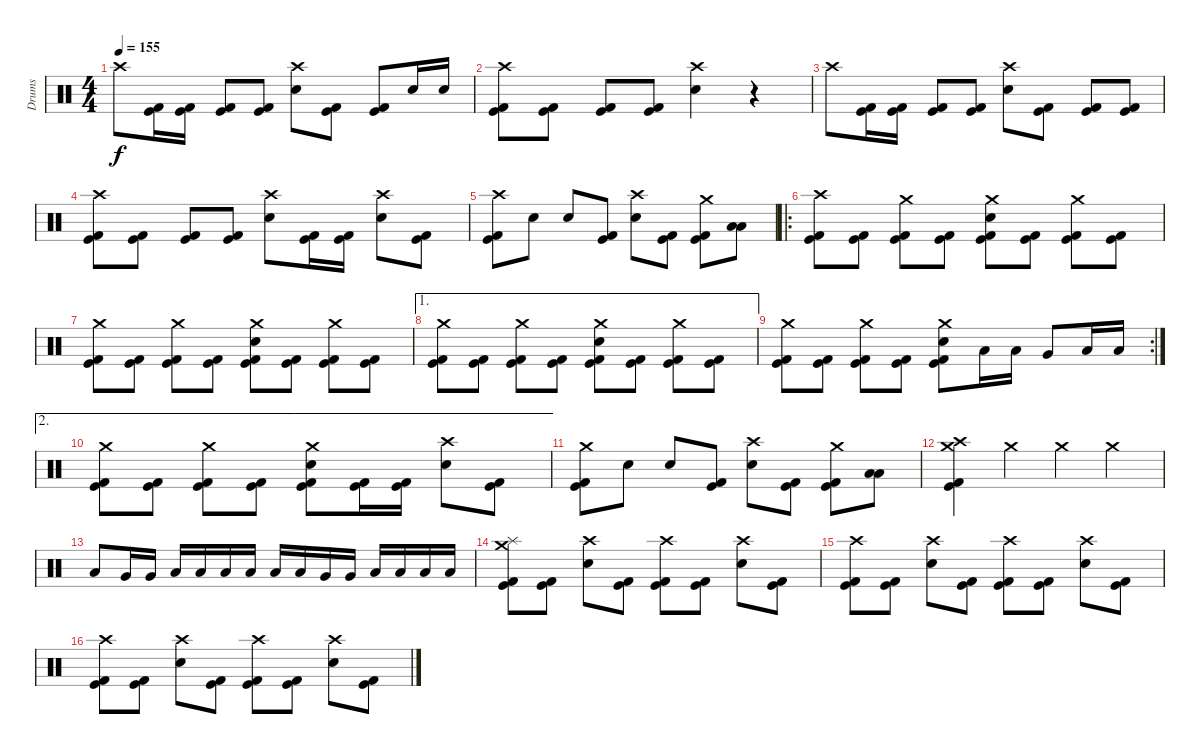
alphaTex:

\track ("Drums" "Drums") {instrument percussion}
\staff {score}
\articulation defaults
\ts (4 4)
\tempo 155
\clef neutral
\ks c "Crash high (hit)".8{dy f}
("Kick (hit)" "Kick (hit) 2").16 ("Kick (hit)" "Kick (hit) 2").16 ("Kick (hit)" "Kick (hit) 2").8 ("Kick (hit)" "Kick (hit) 2").8 ("Crash high (hit)" "Electric Snare (hit)").8 ("Kick (hit)" "Kick (hit) 2").8 ("Kick (hit)" "Kick (hit) 2").8 "Electric Snare (hit)".16 "Electric Snare (hit)".16 |
("Crash high (hit)" "Kick (hit)" "Kick (hit) 2").8 ("Kick (hit)" "Kick (hit) 2").8 ("Kick (hit)" "Kick (hit) 2").8 ("Kick (hit)" "Kick (hit) 2").8 ("Crash high (hit)" "Electric Snare (hit)").4 r.4 |
"Crash high (hit)".8 ("Kick (hit)" "Kick (hit) 2").16 ("Kick (hit)" "Kick (hit) 2").16 ("Kick (hit)" "Kick (hit) 2").8 ("Kick (hit)" "Kick (hit) 2").8 ("Crash high (hit)" "Electric Snare (hit)").8 ("Kick (hit)" "Kick (hit) 2").8 ("Kick (hit)" "Kick (hit) 2").8 ("Kick (hit)" "Kick (hit) 2").8 |
("Crash high (hit)" "Kick (hit)" "Kick (hit) 2").8 ("Kick (hit)" "Kick (hit) 2").8 ("Kick (hit)" "Kick (hit) 2").8 ("Kick (hit)" "Kick (hit) 2").8 ("Crash high (hit)" "Electric Snare (hit)").8 ("Kick (hit)" "Kick (hit) 2").16 ("Kick (hit)" "Kick (hit) 2").16 ("Crash high (hit)" "Electric Snare (hit)").8 ("Kick (hit)" "Kick (hit) 2").8 |
("Crash high (hit)" "Kick (hit)" "Kick (hit) 2").8 "Electric Snare (hit)".8 "Electric Snare (hit)".8 ("Kick (hit)" "Kick (hit) 2").8 ("Crash high (hit)" "Electric Snare (hit)").8 ("Kick (hit)" "Kick (hit) 2").8 ("Crash medium (hit)" "Kick (hit)" "Kick (hit) 2").8 ("Low Floor Tom (hit)" "Low Tom (hit)").8 |
\ro
("Crash high (hit)" "Kick (hit)" "Kick (hit) 2").8 ("Kick (hit)" "Kick (hit) 2").8 ("Crash medium (hit)" "Kick (hit)" "Kick (hit) 2").8 ("Kick (hit)" "Kick (hit) 2").8 ("Crash medium (hit)" "Electric Snare (hit)" "Kick (hit)" "Kick (hit) 2").8 ("Kick (hit)" "Kick (hit) 2").8 ("Crash medium (hit)" "Kick (hit)" "Kick (hit) 2").8 ("Kick (hit)" "Kick (hit) 2").8 |
("Crash medium (hit)" "Kick (hit)" "Kick (hit) 2").8 ("Kick (hit)" "Kick (hit) 2").8 ("Crash medium (hit)" "Kick (hit)" "Kick (hit) 2").8 ("Kick (hit)" "Kick (hit) 2").8 ("Crash medium (hit)" "Electric Snare (hit)" "Kick (hit)" "Kick (hit) 2").8 ("Kick (hit)" "Kick (hit) 2").8 ("Crash medium (hit)" "Kick (hit)" "Kick (hit) 2").8 ("Kick (hit)" "Kick (hit) 2").8 |
\ae 1
("Crash medium (hit)" "Kick (hit)" "Kick (hit) 2").8 ("Kick (hit)" "Kick (hit) 2").8 ("Crash medium (hit)" "Kick (hit)" "Kick (hit) 2").8 ("Kick (hit)" "Kick (hit) 2").8 ("Crash medium (hit)" "Electric Snare (hit)" "Kick (hit)" "Kick (hit) 2").8 ("Kick (hit)" "Kick (hit) 2").8 ("Crash medium (hit)" "Kick (hit)" "Kick (hit) 2").8 ("Kick (hit)" "Kick (hit) 2").8 |
\rc 2
("Crash medium (hit)" "Kick (hit)" "Kick (hit) 2").8 ("Kick (hit)" "Kick (hit) 2").8 ("Crash medium (hit)" "Kick (hit)" "Kick (hit) 2").8 ("Kick (hit)" "Kick (hit) 2").8 ("Crash medium (hit)" "Electric Snare (hit)" "Kick (hit)" "Kick (hit) 2").8 "Low Tom (hit)".16 "Low Tom (hit)".16 "Very Low Tom (hit)".8 "Low Floor Tom (hit)".16 "Low Floor Tom (hit)".16 |
\ae 2
("Crash medium (hit)" "Kick (hit)" "Kick (hit) 2").8 ("Kick (hit)" "Kick (hit) 2").8 ("Crash medium (hit)" "Kick (hit)" "Kick (hit) 2").8 ("Kick (hit)" "Kick (hit) 2").8 ("Crash medium (hit)" "Electric Snare (hit)" "Kick (hit)" "Kick (hit) 2").8 ("Kick (hit)" "Kick (hit) 2").16 ("Kick (hit)" "Kick (hit) 2").16 ("Crash high (hit)" "Electric Snare (hit)").8 ("Kick (hit)" "Kick (hit) 2").8 |
("Crash medium (hit)" "Kick (hit)" "Kick (hit) 2").8 "Electric Snare (hit)".8 "Electric Snare (hit)".8 ("Kick (hit)" "Kick (hit) 2").8 ("Crash high (hit)" "Electric Snare (hit)").8 ("Kick (hit)" "Kick (hit) 2").8 ("Crash medium (hit)" "Kick (hit)" "Kick (hit) 2").8 ("Low Floor Tom (hit)" "Low Tom (hit)").8 |
("Crash high (hit)" "Crash medium (hit)" "Kick (hit)" "Kick (hit) 2").4 "Crash medium (hit)".4 "Crash medium (hit)".4 "Crash medium (hit)".4 |
"Low Tom (hit)".8 "Very Low Tom (hit)".16 "Very Low Tom (hit)".16 "Low Tom (hit)".16 "Low Tom (hit)".16 "Low Floor Tom (hit)".16 "Low Floor Tom (hit)".16 "Low Tom (hit)".16 "Low Tom (hit)".16 "Very Low Tom (hit)".16 "Very Low Tom (hit)".16 "Low Tom (hit)".16 "Low Tom (hit)".16 "Low Floor Tom (hit)".16 "Low Floor Tom (hit)".16 |
("Crash medium (hit)" "Splash (hit)" "Kick (hit)" "Kick (hit) 2").8 ("Kick (hit)" "Kick (hit) 2").8 ("Crash high (hit)" "Electric Snare (hit)").8 ("Kick (hit)" "Kick (hit) 2").8 ("Crash high (hit)" "Kick (hit)" "Kick (hit) 2").8 ("Kick (hit)" "Kick (hit) 2").8 ("Crash high (hit)" "Electric Snare (hit)").8 ("Kick (hit)" "Kick (hit) 2").8 |
("Crash high (hit)" "Kick (hit)" "Kick (hit) 2").8 ("Kick (hit)" "Kick (hit) 2").8 ("Crash high (hit)" "Electric Snare (hit)").8 ("Kick (hit)" "Kick (hit) 2").8 ("Crash high (hit)" "Kick (hit)" "Kick (hit) 2").8 ("Kick (hit)" "Kick (hit) 2").8 ("Crash high (hit)" "Electric Snare (hit)").8 ("Kick (hit)" "Kick (hit) 2").8 |
("Crash high (hit)" "Kick (hit)" "Kick (hit) 2").8 ("Kick (hit)" "Kick (hit) 2").8 ("Crash high (hit)" "Electric Snare (hit)").8 ("Kick (hit)" "Kick (hit) 2").8 ("Crash high (hit)" "Kick (hit)" "Kick (hit) 2").8 ("Kick (hit)" "Kick (hit) 2").8 ("Crash high (hit)" "Electric Snare (hit)").8 ("Kick (hit)" "Kick (hit) 2").8
